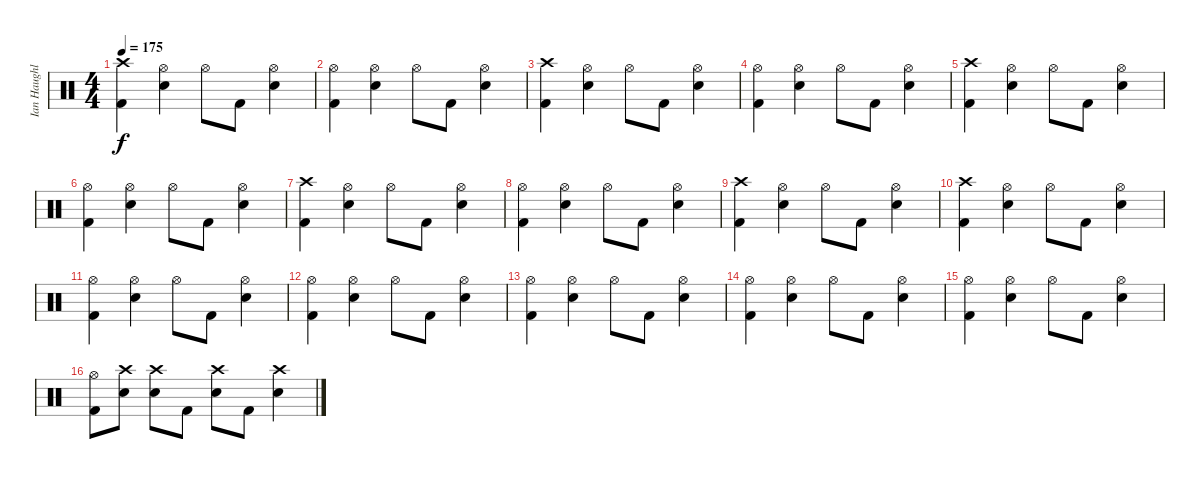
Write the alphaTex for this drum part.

\track ("Ian Haughland" "Ian Haughl") {instrument percussion}
\staff {score}
\articulation defaults
\ts (4 4)
\tempo 175
\clef neutral
\ks c
("Crash high (hit)" "Kick (hit) 2").4{dy f} ("Hi-Hat (open)" "Snare (hit) 2").4 "Hi-Hat (open)".8 "Kick (hit) 2".8 ("Hi-Hat (open)" "Snare (hit) 2").4 |
("Hi-Hat (open)" "Kick (hit) 2").4 ("Hi-Hat (open)" "Snare (hit) 2").4 "Hi-Hat (open)".8 "Kick (hit) 2".8 ("Hi-Hat (open)" "Snare (hit) 2").4 |
("Crash high (hit)" "Kick (hit) 2").4 ("Hi-Hat (open)" "Snare (hit) 2").4 "Hi-Hat (open)".8 "Kick (hit) 2".8 ("Hi-Hat (open)" "Snare (hit) 2").4 |
("Hi-Hat (open)" "Kick (hit) 2").4 ("Hi-Hat (open)" "Snare (hit) 2").4 "Hi-Hat (open)".8 "Kick (hit) 2".8 ("Hi-Hat (open)" "Snare (hit) 2").4 |
("Crash high (hit)" "Kick (hit) 2").4 ("Hi-Hat (open)" "Snare (hit) 2").4 "Hi-Hat (open)".8 "Kick (hit) 2".8 ("Hi-Hat (open)" "Snare (hit) 2").4 |
("Hi-Hat (open)" "Kick (hit) 2").4 ("Hi-Hat (open)" "Snare (hit) 2").4 "Hi-Hat (open)".8 "Kick (hit) 2".8 ("Hi-Hat (open)" "Snare (hit) 2").4 |
("Crash high (hit)" "Kick (hit) 2").4 ("Hi-Hat (open)" "Snare (hit) 2").4 "Hi-Hat (open)".8 "Kick (hit) 2".8 ("Hi-Hat (open)" "Snare (hit) 2").4 |
("Hi-Hat (open)" "Kick (hit) 2").4 ("Hi-Hat (open)" "Snare (hit) 2").4 "Hi-Hat (open)".8 "Kick (hit) 2".8 ("Hi-Hat (open)" "Snare (hit) 2").4 |
("Crash high (hit)" "Kick (hit) 2").4 ("Hi-Hat (open)" "Snare (hit) 2").4 "Hi-Hat (open)".8 "Kick (hit) 2".8 ("Hi-Hat (open)" "Snare (hit) 2").4 |
("Crash high (hit)" "Kick (hit) 2").4 ("Hi-Hat (open)" "Snare (hit) 2").4 "Hi-Hat (open)".8 "Kick (hit) 2".8 ("Hi-Hat (open)" "Snare (hit) 2").4 |
("Hi-Hat (open)" "Kick (hit) 2").4 ("Hi-Hat (open)" "Snare (hit) 2").4 "Hi-Hat (open)".8 "Kick (hit) 2".8 ("Hi-Hat (open)" "Snare (hit) 2").4 |
("Hi-Hat (open)" "Kick (hit) 2").4 ("Hi-Hat (open)" "Snare (hit) 2").4 "Hi-Hat (open)".8 "Kick (hit) 2".8 ("Hi-Hat (open)" "Snare (hit) 2").4 |
("Hi-Hat (open)" "Kick (hit) 2").4 ("Hi-Hat (open)" "Snare (hit) 2").4 "Hi-Hat (open)".8 "Kick (hit) 2".8 ("Hi-Hat (open)" "Snare (hit) 2").4 |
("Hi-Hat (open)" "Kick (hit) 2").4 ("Hi-Hat (open)" "Snare (hit) 2").4 "Hi-Hat (open)".8 "Kick (hit) 2".8 ("Hi-Hat (open)" "Snare (hit) 2").4 |
("Hi-Hat (open)" "Kick (hit) 2").4 ("Hi-Hat (open)" "Snare (hit) 2").4 "Hi-Hat (open)".8 "Kick (hit) 2".8 ("Hi-Hat (open)" "Snare (hit) 2").4 |
("Hi-Hat (open)" "Kick (hit) 2").8 ("Crash high (hit)" "Snare (hit) 2").8 ("Crash high (hit)" "Snare (hit) 2").8 "Kick (hit) 2".8 ("Crash high (hit)" "Snare (hit) 2").8 "Kick (hit) 2".8 ("Crash high (hit)" "Snare (hit) 2").4
